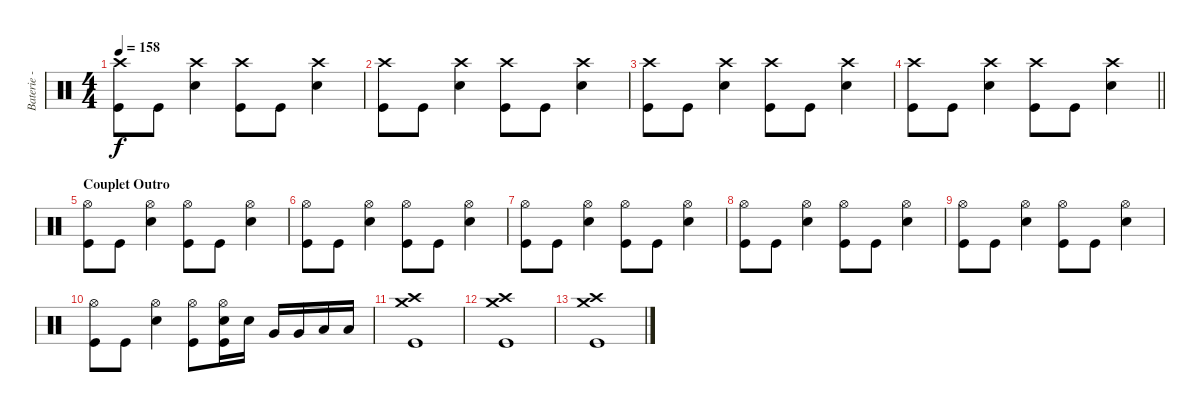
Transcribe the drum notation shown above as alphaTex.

\track ("Baterie - Alex" "Baterie - ") {instrument percussion}
\staff {score}
\articulation defaults
\ts (4 4)
\tempo 158
\clef neutral
\ks c
("Crash high (hit)" "Kick (hit)").8{dy f} "Kick (hit)".8 ("Crash high (hit)" "Electric Snare (hit)").4 ("Crash high (hit)" "Kick (hit)").8 "Kick (hit)".8 ("Crash high (hit)" "Electric Snare (hit)").4 |
("Crash high (hit)" "Kick (hit)").8 "Kick (hit)".8 ("Crash high (hit)" "Electric Snare (hit)").4 ("Crash high (hit)" "Kick (hit)").8 "Kick (hit)".8 ("Crash high (hit)" "Electric Snare (hit)").4 |
("Crash high (hit)" "Kick (hit)").8 "Kick (hit)".8 ("Crash high (hit)" "Electric Snare (hit)").4 ("Crash high (hit)" "Kick (hit)").8 "Kick (hit)".8 ("Crash high (hit)" "Electric Snare (hit)").4 |
\barLineRight lightlight
("Crash high (hit)" "Kick (hit)").8 "Kick (hit)".8 ("Crash high (hit)" "Electric Snare (hit)").4 ("Crash high (hit)" "Kick (hit)").8 "Kick (hit)".8 ("Crash high (hit)" "Electric Snare (hit)").4 |
\section ("" "Couplet Outro")
("Hi-Hat (open)" "Kick (hit)").8 "Kick (hit)".8 ("Hi-Hat (open)" "Electric Snare (hit)").4 ("Hi-Hat (open)" "Kick (hit)").8 "Kick (hit)".8 ("Hi-Hat (open)" "Electric Snare (hit)").4 |
("Hi-Hat (open)" "Kick (hit)").8 "Kick (hit)".8 ("Hi-Hat (open)" "Electric Snare (hit)").4 ("Hi-Hat (open)" "Kick (hit)").8 "Kick (hit)".8 ("Hi-Hat (open)" "Electric Snare (hit)").4 |
("Hi-Hat (open)" "Kick (hit)").8 "Kick (hit)".8 ("Hi-Hat (open)" "Electric Snare (hit)").4 ("Hi-Hat (open)" "Kick (hit)").8 "Kick (hit)".8 ("Hi-Hat (open)" "Electric Snare (hit)").4 |
("Hi-Hat (open)" "Kick (hit)").8 "Kick (hit)".8 ("Hi-Hat (open)" "Electric Snare (hit)").4 ("Hi-Hat (open)" "Kick (hit)").8 "Kick (hit)".8 ("Hi-Hat (open)" "Electric Snare (hit)").4 |
("Hi-Hat (open)" "Kick (hit)").8 "Kick (hit)".8 ("Hi-Hat (open)" "Electric Snare (hit)").4 ("Hi-Hat (open)" "Kick (hit)").8 "Kick (hit)".8 ("Hi-Hat (open)" "Electric Snare (hit)").4 |
("Hi-Hat (open)" "Kick (hit)").8 "Kick (hit)".8 ("Hi-Hat (open)" "Electric Snare (hit)").4 ("Hi-Hat (open)" "Kick (hit)").8 ("Hi-Hat (open)" "Electric Snare (hit)" "Kick (hit)").16 "Electric Snare (hit)".16 "Very Low Tom (hit)".16 "Very Low Tom (hit)".16 "Low Floor Tom (hit)".16 "Low Floor Tom (hit)".16 |
("Crash high (hit)" "Crash medium (hit)" "Kick (hit)").1 |
("Crash high (hit)" "Crash medium (hit)" "Kick (hit)").1 |
("Crash high (hit)" "Crash medium (hit)" "Kick (hit)").1
